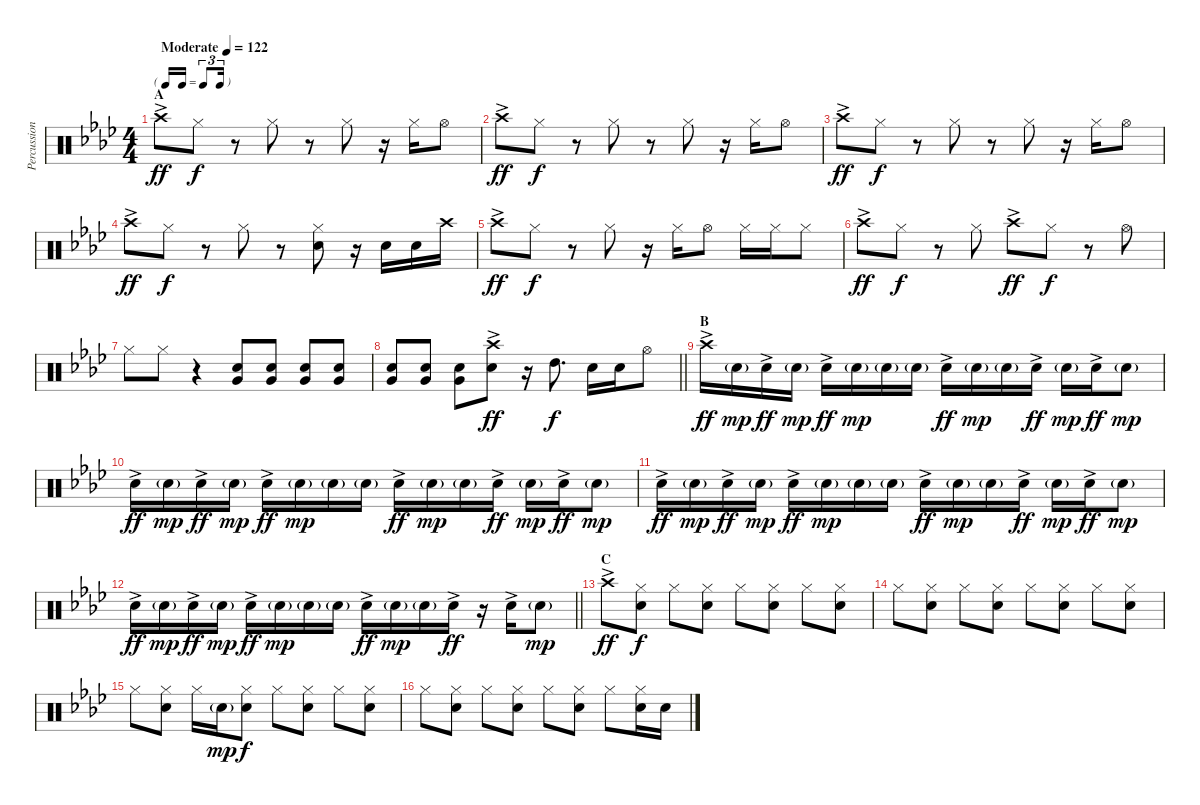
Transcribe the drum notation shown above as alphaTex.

\track ("Percussion Hand" "Percussion") {instrument percussion}
\staff {score}
\articulation defaults
\ts (4 4)
\tf triplet16th
\section ("" "A")
\tempo (122 "Moderate")
\clef neutral
\ks ab "Crash high (hit)"{ac}.8{dy ff} "Hi-Hat (closed)".8{dy f}
r.8 "Hi-Hat (closed)".8 r.8 "Hi-Hat (closed)".8 r.16 "Hi-Hat (closed)".16 "Hi-Hat (open)".8 |
"Crash high (hit)"{ac}.8{dy ff} "Hi-Hat (closed)".8{dy f} r.8 "Hi-Hat (closed)".8 r.8 "Hi-Hat (closed)".8 r.16 "Hi-Hat (closed)".16 "Hi-Hat (open)".8 |
"Crash high (hit)"{ac}.8{dy ff} "Hi-Hat (closed)".8{dy f} r.8 "Hi-Hat (closed)".8 r.8 "Hi-Hat (closed)".8 r.16 "Hi-Hat (closed)".16 "Hi-Hat (open)".8 |
"Crash high (hit)"{ac}.8{dy ff} "Hi-Hat (closed)".8{dy f} r.8 "Hi-Hat (closed)".8 r.8 ("Snare (hit) 2" "Hi-Hat (closed)").8 r.16 "Snare (hit) 2".16 "Snare (hit) 2".16 "Crash high (hit)".16 |
"Crash high (hit)"{ac}.8{dy ff} "Hi-Hat (closed)".8{dy f} r.8 "Hi-Hat (closed)".8 r.16 "Hi-Hat (closed)".16 "Hi-Hat (open)".8 "Hi-Hat (closed)".16 "Hi-Hat (closed)".16 "Hi-Hat (closed)".8 |
"Crash high (hit)"{ac}.8{dy ff} "Hi-Hat (closed)".8{dy f} r.8 "Hi-Hat (closed)".8 "Crash high (hit)"{ac}.8{dy ff} "Hi-Hat (closed)".8{dy f} r.8 "Hi-Hat (open)".8 |
"Hi-Hat (closed)".8 "Hi-Hat (closed)".8 r.4 ("Snare (hit) 2" "Very Low Tom (hit)").8 ("Snare (hit) 2" "Very Low Tom (hit)").8 ("Snare (hit) 2" "Very Low Tom (hit)").8 ("Snare (hit) 2" "Very Low Tom (hit)").8 |
\barLineRight lightlight
("Snare (hit) 2" "Very Low Tom (hit)").8 ("Snare (hit) 2" "Very Low Tom (hit)").8 ("Snare (hit) 2" "Very Low Tom (hit)").8 ("Crash high (hit)"{ac} "Snare (hit) 2").8{dy ff} r.16 "High Tom (hit)".8{d dy f} "Snare (hit) 2".16 "Snare (hit) 2".16 "Hi-Hat (open)".8 |
\section ("" "B")
"Crash high (hit)"{ac}.16{dy ff} "Snare (hit) 2"{g}.16{dy mp} "Snare (hit) 2"{ac}.16{dy ff} "Snare (hit) 2"{g}.16{dy mp} "Snare (hit) 2"{ac}.16{dy ff} "Snare (hit) 2"{g}.16{dy mp} "Snare (hit) 2"{g}.16 "Snare (hit) 2"{g}.16 "Snare (hit) 2"{ac}.16{dy ff} "Snare (hit) 2"{g}.16{dy mp} "Snare (hit) 2"{g}.16 "Snare (hit) 2"{ac}.16{dy ff} "Snare (hit) 2"{g}.16{dy mp} "Snare (hit) 2"{ac}.16{dy ff} "Snare (hit) 2"{g}.8{dy mp} |
"Snare (hit) 2"{ac}.16{dy ff} "Snare (hit) 2"{g}.16{dy mp} "Snare (hit) 2"{ac}.16{dy ff} "Snare (hit) 2"{g}.16{dy mp} "Snare (hit) 2"{ac}.16{dy ff} "Snare (hit) 2"{g}.16{dy mp} "Snare (hit) 2"{g}.16 "Snare (hit) 2"{g}.16 "Snare (hit) 2"{ac}.16{dy ff} "Snare (hit) 2"{g}.16{dy mp} "Snare (hit) 2"{g}.16 "Snare (hit) 2"{ac}.16{dy ff} "Snare (hit) 2"{g}.16{dy mp} "Snare (hit) 2"{ac}.16{dy ff} "Snare (hit) 2"{g}.8{dy mp} |
"Snare (hit) 2"{ac}.16{dy ff} "Snare (hit) 2"{g}.16{dy mp} "Snare (hit) 2"{ac}.16{dy ff} "Snare (hit) 2"{g}.16{dy mp} "Snare (hit) 2"{ac}.16{dy ff} "Snare (hit) 2"{g}.16{dy mp} "Snare (hit) 2"{g}.16 "Snare (hit) 2"{g}.16 "Snare (hit) 2"{ac}.16{dy ff} "Snare (hit) 2"{g}.16{dy mp} "Snare (hit) 2"{g}.16 "Snare (hit) 2"{ac}.16{dy ff} "Snare (hit) 2"{g}.16{dy mp} "Snare (hit) 2"{ac}.16{dy ff} "Snare (hit) 2"{g}.8{dy mp} |
\barLineRight lightlight "Snare (hit) 2"{ac}.16{dy ff} "Snare (hit) 2"{g}.16{dy mp} "Snare (hit) 2"{ac}.16{dy ff} "Snare (hit) 2"{g}.16{dy mp} "Snare (hit) 2"{ac}.16{dy ff} "Snare (hit) 2"{g}.16{dy mp} "Snare (hit) 2"{g}.16 "Snare (hit) 2"{g}.16 "Snare (hit) 2"{ac}.16{dy ff} "Snare (hit) 2"{g}.16{dy mp} "Snare (hit) 2"{g}.16 "Snare (hit) 2"{ac}.16{dy ff}
r.16 "Snare (hit) 2"{ac}.16 "Snare (hit) 2"{g}.8{dy mp} |
\section ("" "C")
"Crash high (hit)"{ac}.8{dy ff} ("Hi-Hat (closed)" "Snare (hit) 2").8{dy f} "Hi-Hat (closed)".8 ("Hi-Hat (closed)" "Snare (hit) 2").8 "Hi-Hat (closed)".8 ("Hi-Hat (closed)" "Snare (hit) 2").8 "Hi-Hat (closed)".8 ("Snare (hit) 2" "Hi-Hat (closed)").8 |
"Hi-Hat (closed)".8 ("Hi-Hat (closed)" "Snare (hit) 2").8 "Hi-Hat (closed)".8 ("Hi-Hat (closed)" "Snare (hit) 2").8 "Hi-Hat (closed)".8 ("Hi-Hat (closed)" "Snare (hit) 2").8 "Hi-Hat (closed)".8 ("Hi-Hat (closed)" "Snare (hit) 2").8 |
"Hi-Hat (closed)".8 ("Hi-Hat (closed)" "Snare (hit) 2").8 "Hi-Hat (closed)".16 "Snare (hit) 2"{g}.16{dy mp} ("Hi-Hat (closed)" "Snare (hit) 2").8{dy f} "Hi-Hat (closed)".8 ("Hi-Hat (closed)" "Snare (hit) 2").8 "Hi-Hat (closed)".8 ("Hi-Hat (closed)" "Snare (hit) 2").8 |
"Hi-Hat (closed)".8 ("Hi-Hat (closed)" "Snare (hit) 2").8 "Hi-Hat (closed)".8 ("Hi-Hat (closed)" "Snare (hit) 2").8 "Hi-Hat (closed)".8 ("Hi-Hat (closed)" "Snare (hit) 2").8 "Hi-Hat (closed)".8 ("Hi-Hat (closed)" "Snare (hit) 2").16 "Snare (hit) 2".16
